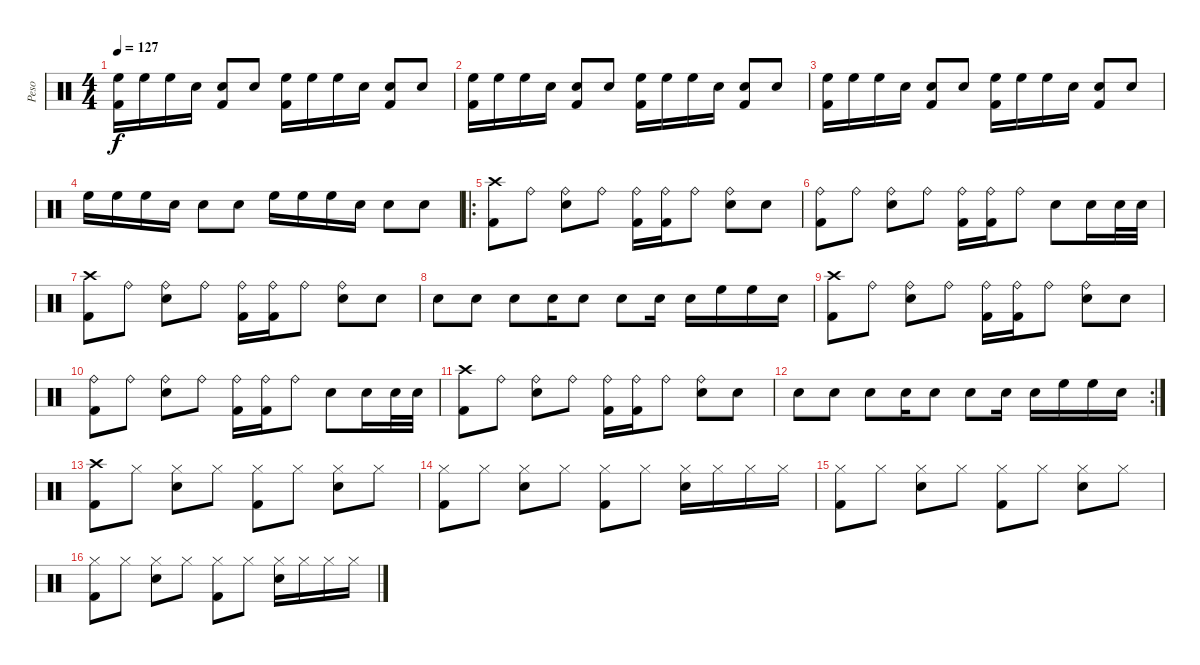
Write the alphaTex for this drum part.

\track ("Peso" "Peso") {instrument percussion}
\staff {score}
\articulation defaults
\ts (4 4)
\tempo 127
\clef neutral
\ks c
("High Floor Tom (hit)" "Kick (hit) 2").16{dy f} "High Floor Tom (hit)".16 "High Floor Tom (hit)".16 "Snare (hit) 2"{x}.16 ("Snare (hit) 2" "Kick (hit) 2").8 "Snare (hit) 2"{x}.8 ("High Floor Tom (hit)" "Kick (hit) 2").16 "High Floor Tom (hit)".16 "High Floor Tom (hit)".16 "Snare (hit)"{x}.16 ("Snare (hit) 2" "Kick (hit) 2").8 "Snare (hit) 2"{x}.8 |
("High Floor Tom (hit)" "Kick (hit) 2").16 "High Floor Tom (hit)".16 "High Floor Tom (hit)".16 "Snare (hit) 2"{x}.16 ("Snare (hit) 2" "Kick (hit) 2").8 "Snare (hit) 2"{x}.8 ("High Floor Tom (hit)" "Kick (hit) 2").16 "High Floor Tom (hit)".16 "High Floor Tom (hit)".16 "Snare (hit)"{x}.16 ("Snare (hit) 2" "Kick (hit) 2").8 "Snare (hit) 2"{x}.8 |
("High Floor Tom (hit)" "Kick (hit) 2").16 "High Floor Tom (hit)".16 "High Floor Tom (hit)".16 "Snare (hit) 2"{x}.16 ("Snare (hit) 2" "Kick (hit) 2").8 "Snare (hit) 2"{x}.8 ("High Floor Tom (hit)" "Kick (hit) 2").16 "High Floor Tom (hit)".16 "High Floor Tom (hit)".16 "Snare (hit)"{x}.16 ("Snare (hit) 2" "Kick (hit) 2").8 "Snare (hit) 2"{x}.8 |
"High Floor Tom (hit)".16 "High Floor Tom (hit)".16 "High Floor Tom (hit)".16 "Snare (hit) 2"{x}.16 "Snare (hit) 2".8 "Snare (hit) 2"{x}.8 "High Floor Tom (hit)".16 "High Floor Tom (hit)".16 "High Floor Tom (hit)".16 "Snare (hit)"{x}.16 "Snare (hit) 2".8 "Snare (hit) 2".8 |
\ro
("Crash high (hit)" "Kick (hit) 2").8 "Ride (bell)"{x}.8 ("Ride (bell)" "Snare (hit) 2").8 "Ride (bell)"{x}.8 ("Ride (bell)" "Kick (hit) 2").16 ("Ride (bell)"{x} "Kick (hit) 2").16 "Ride (bell)"{x}.8 ("Ride (bell)" "Snare (hit) 2").8 "Snare (hit)"{x}.8 |
("Ride (bell)" "Kick (hit) 2").8 "Ride (bell)"{x}.8 ("Ride (bell)" "Snare (hit) 2").8 "Ride (bell)"{x}.8 ("Ride (bell)" "Kick (hit) 2").16 ("Ride (bell)"{x} "Kick (hit) 2").16 "Ride (bell)"{x}.8 "Snare (hit) 2".8 "Snare (hit) 2".16 "Snare (hit) 2".32 "Snare (hit) 2".32 |
("Crash high (hit)" "Kick (hit) 2").8 "Ride (bell)"{x}.8 ("Ride (bell)" "Snare (hit) 2").8 "Ride (bell)"{x}.8 ("Ride (bell)" "Kick (hit) 2").16 ("Ride (bell)"{x} "Kick (hit) 2").16 "Ride (bell)"{x}.8 ("Ride (bell)" "Snare (hit) 2").8 "Snare (hit)"{x}.8 |
"Snare (hit) 2".8 "Snare (hit) 2".8 "Snare (hit)"{x}.8 "Snare (hit) 2".16 "Snare (hit) 2".8 "Snare (hit) 2".8 "Snare (hit) 2".16 "Snare (hit) 2".16 "High Floor Tom (hit)".16 "High Floor Tom (hit)".16 "Snare (hit) 2".16 |
("Crash high (hit)" "Kick (hit) 2").8 "Ride (bell)"{x}.8 ("Ride (bell)" "Snare (hit) 2").8 "Ride (bell)"{x}.8 ("Ride (bell)" "Kick (hit) 2").16 ("Ride (bell)"{x} "Kick (hit) 2").16 "Ride (bell)"{x}.8 ("Ride (bell)" "Snare (hit) 2").8 "Snare (hit)"{x}.8 |
("Ride (bell)" "Kick (hit) 2").8 "Ride (bell)"{x}.8 ("Ride (bell)" "Snare (hit) 2").8 "Ride (bell)"{x}.8 ("Ride (bell)" "Kick (hit) 2").16 ("Ride (bell)"{x} "Kick (hit) 2").16 "Ride (bell)"{x}.8 "Snare (hit) 2".8 "Snare (hit) 2".16 "Snare (hit) 2".32 "Snare (hit) 2".32 |
("Crash high (hit)" "Kick (hit) 2").8 "Ride (bell)"{x}.8 ("Ride (bell)" "Snare (hit) 2").8 "Ride (bell)"{x}.8 ("Ride (bell)" "Kick (hit) 2").16 ("Ride (bell)"{x} "Kick (hit) 2").16 "Ride (bell)"{x}.8 ("Ride (bell)" "Snare (hit) 2").8 "Snare (hit)"{x}.8 |
\rc 2 "Snare (hit) 2".8 "Snare (hit) 2".8 "Snare (hit)"{x}.8 "Snare (hit) 2".16 "Snare (hit) 2".8 "Snare (hit) 2".8 "Snare (hit) 2".16 "Snare (hit) 2".16 "High Floor Tom (hit)".16 "High Floor Tom (hit)".16 "Snare (hit) 2".16
|
("Crash high (hit)" "Kick (hit) 2").8 "Hi-Hat (closed)".8 ("Hi-Hat (closed)" "Snare (hit) 2").8 "Hi-Hat (closed)".8 ("Hi-Hat (closed)" "Kick (hit) 2").8 "Hi-Hat (closed)".8 ("Hi-Hat (closed)" "Snare (hit) 2").8 "Hi-Hat (closed)".8 |
("Hi-Hat (closed)" "Kick (hit) 2").8 "Hi-Hat (closed)".8 ("Hi-Hat (closed)" "Snare (hit) 2").8 "Hi-Hat (closed)".8 ("Hi-Hat (closed)" "Kick (hit) 2").8 "Hi-Hat (closed)".8 ("Hi-Hat (closed)" "Snare (hit) 2").16 "Hi-Hat (closed)".16 "Hi-Hat (closed)".16 "Hi-Hat (closed)".16 |
("Hi-Hat (closed)" "Kick (hit) 2").8 "Hi-Hat (closed)".8 ("Hi-Hat (closed)" "Snare (hit) 2").8 "Hi-Hat (closed)".8 ("Hi-Hat (closed)" "Kick (hit) 2").8 "Hi-Hat (closed)".8 ("Hi-Hat (closed)" "Snare (hit) 2").8 "Hi-Hat (closed)".8 |
("Hi-Hat (closed)" "Kick (hit) 2").8 "Hi-Hat (closed)".8 ("Hi-Hat (closed)" "Snare (hit) 2").8 "Hi-Hat (closed)".8 ("Hi-Hat (closed)" "Kick (hit) 2").8 "Hi-Hat (closed)".8 ("Hi-Hat (closed)" "Snare (hit) 2").16 "Hi-Hat (closed)".16 "Hi-Hat (closed)".16 "Hi-Hat (closed)".16
